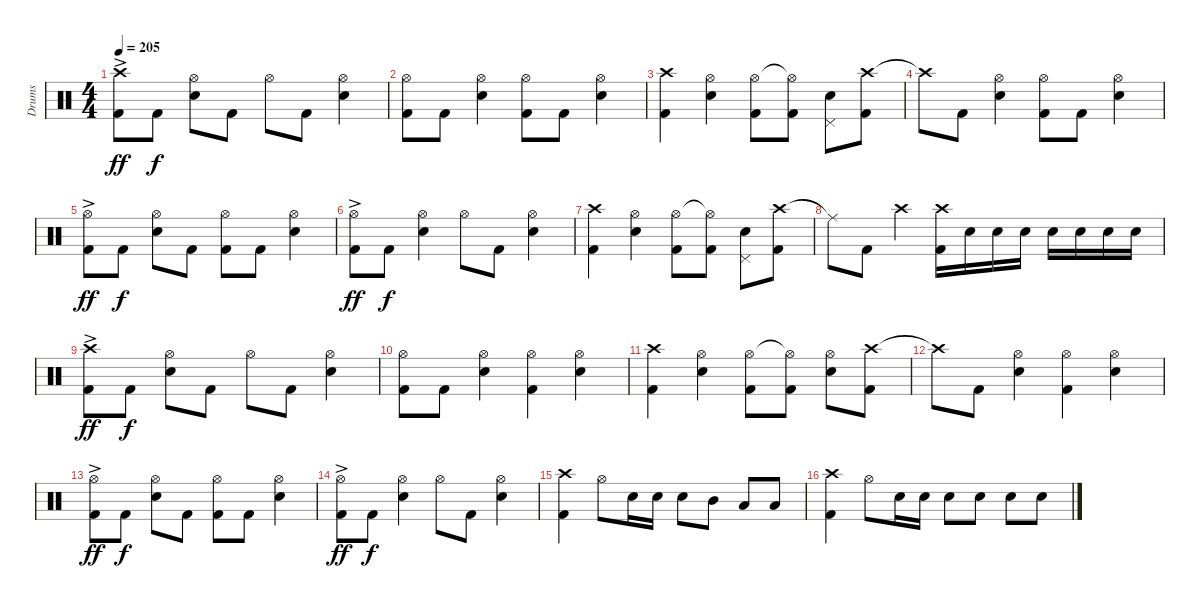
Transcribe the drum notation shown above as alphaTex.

\track ("Drums" "Drums") {instrument percussion}
\staff {score}
\articulation defaults
\ts (4 4)
\tempo 205
\clef neutral
\ks c
("Crash high (hit)"{ac} "Kick (hit) 2").8{dy ff} "Kick (hit) 2".8{dy f} ("Hi-Hat (open)" "Electric Snare (hit)").8 "Kick (hit) 2".8 "Hi-Hat (open)".8 "Kick (hit) 2".8 ("Hi-Hat (open)" "Electric Snare (hit)").4 |
("Hi-Hat (open)" "Kick (hit) 2").8 "Kick (hit) 2".8 ("Hi-Hat (open)" "Electric Snare (hit)").4 ("Hi-Hat (open)" "Kick (hit) 2").8 "Kick (hit) 2".8 ("Hi-Hat (open)" "Electric Snare (hit)").4 |
("Crash high (hit)" "Kick (hit) 2").4 ("Hi-Hat (open)" "Electric Snare (hit)").4 ("Hi-Hat (open)" "Kick (hit) 2").8 ("Hi-Hat (open)"{t} "Kick (hit) 2").8 ("Pedal Hi-Hat (hit)" "Electric Snare (hit)").8 ("Crash high (hit)" "Kick (hit) 2").8 |
"Crash high (hit)"{t}.8 "Kick (hit) 2".8 ("Hi-Hat (open)" "Electric Snare (hit)").4 ("Hi-Hat (open)" "Kick (hit) 2").8 "Kick (hit) 2".8 ("Hi-Hat (open)" "Electric Snare (hit)").4 |
("Hi-Hat (open)"{ac} "Kick (hit) 2").8{dy ff} "Kick (hit) 2".8{dy f} ("Hi-Hat (open)" "Electric Snare (hit)").8 "Kick (hit) 2".8 ("Hi-Hat (open)" "Kick (hit) 2").8 "Kick (hit) 2".8 ("Hi-Hat (open)" "Electric Snare (hit)").4 |
("Hi-Hat (open)"{ac} "Kick (hit) 2").8{dy ff} "Kick (hit) 2".8{dy f} ("Hi-Hat (open)" "Electric Snare (hit)").4 "Hi-Hat (open)".8 "Kick (hit) 2".8 ("Hi-Hat (open)" "Electric Snare (hit)").4 |
("Crash high (hit)" "Kick (hit) 2").4 ("Hi-Hat (open)" "Electric Snare (hit)").4 ("Hi-Hat (open)" "Kick (hit) 2").8 ("Hi-Hat (open)"{t} "Kick (hit) 2").8 ("Pedal Hi-Hat (hit)" "Electric Snare (hit)").8 ("Crash high (hit)" "Kick (hit) 2").8 |
"Ride (middle)"{t}.8 "Kick (hit) 2".8 "Crash high (hit)".4 ("Crash high (hit)" "Kick (hit) 2").16 "Electric Snare (hit)".16 "Electric Snare (hit)".16 "Electric Snare (hit)".16 "Electric Snare (hit)".16 "Electric Snare (hit)".16 "Electric Snare (hit)".16 "Electric Snare (hit)".16 |
("Crash high (hit)"{ac} "Kick (hit) 2").8{dy ff} "Kick (hit) 2".8{dy f} ("Hi-Hat (open)" "Electric Snare (hit)").8 "Kick (hit) 2".8 "Hi-Hat (open)".8 "Kick (hit) 2".8 ("Hi-Hat (open)" "Electric Snare (hit)").4 |
("Hi-Hat (open)" "Kick (hit) 2").8 "Kick (hit) 2".8 ("Hi-Hat (open)" "Electric Snare (hit)").4 ("Hi-Hat (open)" "Kick (hit) 2").4 ("Hi-Hat (open)" "Electric Snare (hit)").4 |
("Crash high (hit)" "Kick (hit) 2").4 ("Hi-Hat (open)" "Electric Snare (hit)").4 ("Hi-Hat (open)" "Kick (hit) 2").8 ("Hi-Hat (open)"{t} "Kick (hit) 2").8 ("Hi-Hat (open)" "Electric Snare (hit)").8 ("Crash high (hit)" "Kick (hit) 2").8 |
"Crash high (hit)"{t}.8 "Kick (hit) 2".8 ("Hi-Hat (open)" "Electric Snare (hit)").4 ("Hi-Hat (open)" "Kick (hit) 2").4 ("Hi-Hat (open)" "Electric Snare (hit)").4 |
("Hi-Hat (open)"{ac} "Kick (hit) 2").8{dy ff} "Kick (hit) 2".8{dy f} ("Hi-Hat (open)" "Electric Snare (hit)").8 "Kick (hit) 2".8 ("Hi-Hat (open)" "Kick (hit) 2").8 "Kick (hit) 2".8 ("Hi-Hat (open)" "Electric Snare (hit)").4 |
("Hi-Hat (open)"{ac} "Kick (hit) 2").8{dy ff} "Kick (hit) 2".8{dy f} ("Hi-Hat (open)" "Electric Snare (hit)").4 "Hi-Hat (open)".8 "Kick (hit) 2".8 ("Hi-Hat (open)" "Electric Snare (hit)").4 |
("Crash high (hit)" "Kick (hit) 2").4 "Hi-Hat (open)".8 "Electric Snare (hit)".16 "Electric Snare (hit)".16 "Electric Snare (hit)".8 "Mid Tom (hit)".8 "Low Tom (hit)".8 "Low Tom (hit)".8 |
("Crash high (hit)" "Kick (hit) 2").4 "Hi-Hat (open)".8 "Electric Snare (hit)".16 "Electric Snare (hit)".16 "Electric Snare (hit)".8 "Electric Snare (hit)".8 "Electric Snare (hit)".8 "Electric Snare (hit)".8
